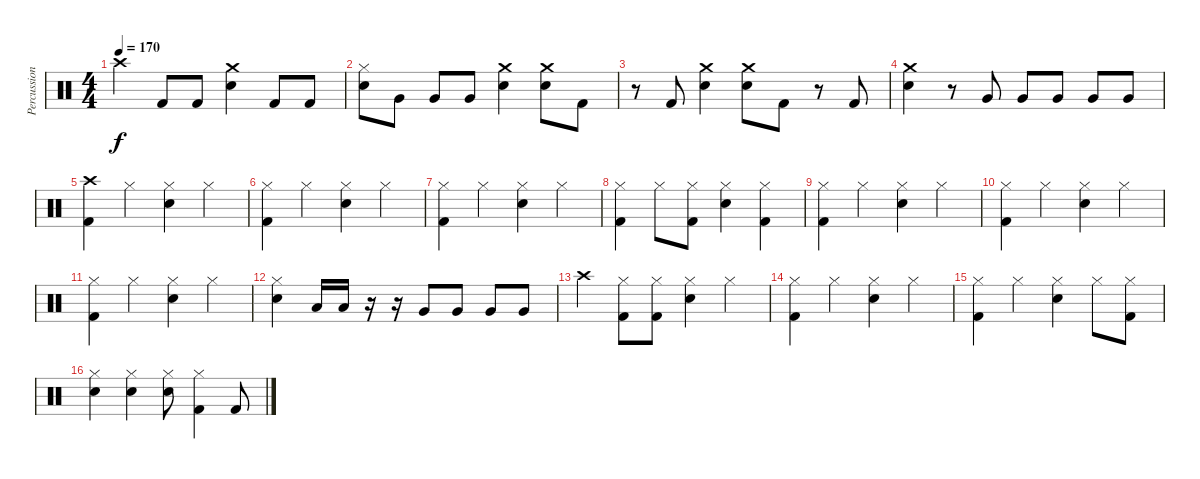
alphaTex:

\track ("Percussion" "Percussion") {instrument percussion}
\staff {score}
\articulation defaults
\ts (4 4)
\tempo 170
\clef neutral
\ks c "Crash high (hit)".4{dy f} "Kick (hit) 2".8 "Kick (hit) 2".8
("Snare (hit) 2" "Crash medium (hit)").4 "Kick (hit) 2".8 "Kick (hit) 2".8 |
("Snare (hit) 2" "Hi-Hat (closed)").8 "Very Low Tom (hit)".8 "Very Low Tom (hit)".8 "Very Low Tom (hit)".8 ("Snare (hit) 2" "Crash medium (hit)").4 ("Snare (hit) 2" "Crash medium (hit)").8 "Kick (hit) 2".8 |
r.8 "Kick (hit) 2".8 ("Snare (hit) 2" "Crash medium (hit)").4 ("Snare (hit) 2" "Crash medium (hit)").8 "Kick (hit) 2".8 r.8 "Kick (hit) 2".8 |
("Snare (hit) 2" "Crash medium (hit)").4 r.8 "Very Low Tom (hit)".8 "Very Low Tom (hit)".8 "Very Low Tom (hit)".8 "Very Low Tom (hit)".8 "Very Low Tom (hit)".8 |
("Crash high (hit)" "Kick (hit) 2").4 "Hi-Hat (closed)".4 ("Hi-Hat (closed)" "Snare (hit) 2").4 "Hi-Hat (closed)".4 |
("Hi-Hat (closed)" "Kick (hit) 2").4 "Hi-Hat (closed)".4 ("Hi-Hat (closed)" "Snare (hit) 2").4 "Hi-Hat (closed)".4 |
("Hi-Hat (closed)" "Kick (hit) 2").4 "Hi-Hat (closed)".4 ("Hi-Hat (closed)" "Snare (hit) 2").4 "Hi-Hat (closed)".4 |
("Hi-Hat (closed)" "Kick (hit) 2").4 "Hi-Hat (closed)".8 ("Hi-Hat (closed)" "Kick (hit) 2").8 ("Hi-Hat (closed)" "Snare (hit) 2").4 ("Hi-Hat (closed)" "Kick (hit) 2").4 |
("Hi-Hat (closed)" "Kick (hit) 2").4 "Hi-Hat (closed)".4 ("Hi-Hat (closed)" "Snare (hit) 2").4 "Hi-Hat (closed)".4 |
("Hi-Hat (closed)" "Kick (hit) 2").4 "Hi-Hat (closed)".4 ("Hi-Hat (closed)" "Snare (hit) 2").4 "Hi-Hat (closed)".4 |
("Hi-Hat (closed)" "Kick (hit) 2").4 "Hi-Hat (closed)".4 ("Hi-Hat (closed)" "Snare (hit) 2").4 "Hi-Hat (closed)".4 |
("Snare (hit) 2" "Hi-Hat (closed)").4 "Low Tom (hit)".16 "Low Tom (hit)".16 r.16 r.16 "Very Low Tom (hit)".8 "Very Low Tom (hit)".8 "Very Low Tom (hit)".8 "Very Low Tom (hit)".8 |
"Crash high (hit)".4 ("Kick (hit) 2" "Hi-Hat (closed)").8 ("Kick (hit) 2" "Hi-Hat (closed)").8 ("Snare (hit) 2" "Hi-Hat (closed)").4 "Hi-Hat (closed)".4 |
("Kick (hit) 2" "Hi-Hat (closed)").4 "Hi-Hat (closed)".4 ("Hi-Hat (closed)" "Snare (hit) 2").4 "Hi-Hat (closed)".4 |
("Kick (hit) 2" "Hi-Hat (closed)").4 "Hi-Hat (closed)".4 ("Hi-Hat (closed)" "Snare (hit) 2").4 "Hi-Hat (closed)".8 ("Hi-Hat (closed)" "Kick (hit) 2").8 |
("Hi-Hat (closed)" "Snare (hit) 2").4 ("Hi-Hat (closed)" "Snare (hit) 2").4 ("Snare (hit) 2" "Hi-Hat (closed)").8 ("Kick (hit) 2" "Hi-Hat (closed)").4 "Kick (hit) 2".8
